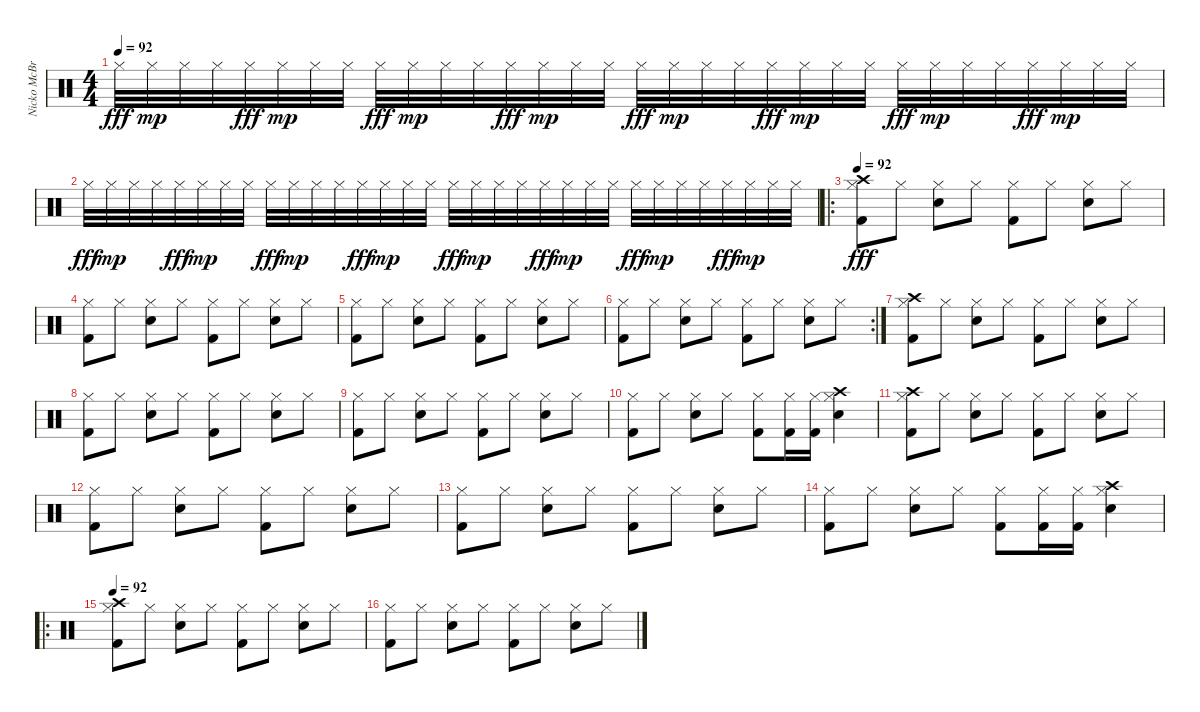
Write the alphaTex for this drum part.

\track ("Nicko McBrain" "Nicko McBr") {instrument percussion}
\staff {score}
\articulation defaults
\ts (4 4)
\tempo 92
\clef neutral
\ks c "Hi-Hat (closed)".32{dy fff} "Hi-Hat (closed)".32{dy mp} "Hi-Hat (closed)".32 "Hi-Hat (closed)".32 "Hi-Hat (closed)".32{dy fff} "Hi-Hat (closed)".32{dy mp} "Hi-Hat (closed)".32 "Hi-Hat (closed)".32 "Hi-Hat (closed)".32{dy fff} "Hi-Hat (closed)".32{dy mp} "Hi-Hat (closed)".32 "Hi-Hat (closed)".32 "Hi-Hat (closed)".32{dy fff} "Hi-Hat (closed)".32{dy mp} "Hi-Hat (closed)".32 "Hi-Hat (closed)".32 "Hi-Hat (closed)".32{dy fff} "Hi-Hat (closed)".32{dy mp} "Hi-Hat (closed)".32 "Hi-Hat (closed)".32 "Hi-Hat (closed)".32{dy fff} "Hi-Hat (closed)".32{dy mp} "Hi-Hat (closed)".32 "Hi-Hat (closed)".32 "Hi-Hat (closed)".32{dy fff} "Hi-Hat (closed)".32{dy mp} "Hi-Hat (closed)".32 "Hi-Hat (closed)".32 "Hi-Hat (closed)".32{dy fff} "Hi-Hat (closed)".32{dy mp} "Hi-Hat (closed)".32 "Hi-Hat (closed)".32
|
"Hi-Hat (closed)".32{dy fff} "Hi-Hat (closed)".32{dy mp} "Hi-Hat (closed)".32 "Hi-Hat (closed)".32 "Hi-Hat (closed)".32{dy fff} "Hi-Hat (closed)".32{dy mp} "Hi-Hat (closed)".32 "Hi-Hat (closed)".32 "Hi-Hat (closed)".32{dy fff} "Hi-Hat (closed)".32{dy mp} "Hi-Hat (closed)".32 "Hi-Hat (closed)".32 "Hi-Hat (closed)".32{dy fff} "Hi-Hat (closed)".32{dy mp} "Hi-Hat (closed)".32 "Hi-Hat (closed)".32 "Hi-Hat (closed)".32{dy fff} "Hi-Hat (closed)".32{dy mp} "Hi-Hat (closed)".32 "Hi-Hat (closed)".32 "Hi-Hat (closed)".32{dy fff} "Hi-Hat (closed)".32{dy mp} "Hi-Hat (closed)".32 "Hi-Hat (closed)".32 "Hi-Hat (closed)".32{dy fff} "Hi-Hat (closed)".32{dy mp} "Hi-Hat (closed)".32 "Hi-Hat (closed)".32 "Hi-Hat (closed)".32{dy fff} "Hi-Hat (closed)".32{dy mp} "Hi-Hat (closed)".32 "Hi-Hat (closed)".32 |
\ro
\tempo 92
("Hi-Hat (closed)" "Kick (hit) 2" "Crash high (hit)").8{dy fff} "Hi-Hat (closed)".8 ("Hi-Hat (closed)" "Snare (hit) 2").8 "Hi-Hat (closed)".8 ("Hi-Hat (closed)" "Kick (hit) 2").8 "Hi-Hat (closed)".8 ("Hi-Hat (closed)" "Snare (hit) 2").8 "Hi-Hat (closed)".8 |
("Hi-Hat (closed)" "Kick (hit) 2").8 "Hi-Hat (closed)".8 ("Hi-Hat (closed)" "Snare (hit) 2").8 "Hi-Hat (closed)".8 ("Hi-Hat (closed)" "Kick (hit) 2").8 "Hi-Hat (closed)".8 ("Hi-Hat (closed)" "Snare (hit) 2").8 "Hi-Hat (closed)".8 |
("Hi-Hat (closed)" "Kick (hit) 2").8 "Hi-Hat (closed)".8 ("Hi-Hat (closed)" "Snare (hit) 2").8 "Hi-Hat (closed)".8 ("Hi-Hat (closed)" "Kick (hit) 2").8 "Hi-Hat (closed)".8 ("Hi-Hat (closed)" "Snare (hit) 2").8 "Hi-Hat (closed)".8 |
\rc 2
("Hi-Hat (closed)" "Kick (hit) 2").8 "Hi-Hat (closed)".8 ("Hi-Hat (closed)" "Snare (hit) 2").8 "Hi-Hat (closed)".8 ("Hi-Hat (closed)" "Kick (hit) 2").8 "Hi-Hat (closed)".8 ("Hi-Hat (closed)" "Snare (hit) 2").8 "Hi-Hat (closed)".8 |
("Hi-Hat (closed)" "Kick (hit) 2" "Crash high (hit)").8 "Hi-Hat (closed)".8 ("Hi-Hat (closed)" "Snare (hit) 2").8 "Hi-Hat (closed)".8 ("Hi-Hat (closed)" "Kick (hit) 2").8 "Hi-Hat (closed)".8 ("Hi-Hat (closed)" "Snare (hit) 2").8 "Hi-Hat (closed)".8 |
("Hi-Hat (closed)" "Kick (hit) 2").8 "Hi-Hat (closed)".8 ("Hi-Hat (closed)" "Snare (hit) 2").8 "Hi-Hat (closed)".8 ("Hi-Hat (closed)" "Kick (hit) 2").8 "Hi-Hat (closed)".8 ("Hi-Hat (closed)" "Snare (hit) 2").8 "Hi-Hat (closed)".8 |
("Hi-Hat (closed)" "Kick (hit) 2").8 "Hi-Hat (closed)".8 ("Hi-Hat (closed)" "Snare (hit) 2").8 "Hi-Hat (closed)".8 ("Hi-Hat (closed)" "Kick (hit) 2").8 "Hi-Hat (closed)".8 ("Hi-Hat (closed)" "Snare (hit) 2").8 "Hi-Hat (closed)".8 |
("Hi-Hat (closed)" "Kick (hit) 2").8 "Hi-Hat (closed)".8 ("Hi-Hat (closed)" "Snare (hit) 2").8 "Hi-Hat (closed)".8 ("Hi-Hat (closed)" "Kick (hit) 2").8 ("Hi-Hat (closed)" "Kick (hit) 2").16 ("Hi-Hat (closed)" "Kick (hit) 2").16 ("Hi-Hat (closed)" "Snare (hit) 2" "Crash high (hit)").4 |
("Hi-Hat (closed)" "Kick (hit) 2" "Crash high (hit)").8 "Hi-Hat (closed)".8 ("Hi-Hat (closed)" "Snare (hit) 2").8 "Hi-Hat (closed)".8 ("Hi-Hat (closed)" "Kick (hit) 2").8 "Hi-Hat (closed)".8 ("Hi-Hat (closed)" "Snare (hit) 2").8 "Hi-Hat (closed)".8 |
("Hi-Hat (closed)" "Kick (hit) 2").8 "Hi-Hat (closed)".8 ("Hi-Hat (closed)" "Snare (hit) 2").8 "Hi-Hat (closed)".8 ("Hi-Hat (closed)" "Kick (hit) 2").8 "Hi-Hat (closed)".8 ("Hi-Hat (closed)" "Snare (hit) 2").8 "Hi-Hat (closed)".8 |
("Hi-Hat (closed)" "Kick (hit) 2").8 "Hi-Hat (closed)".8 ("Hi-Hat (closed)" "Snare (hit) 2").8 "Hi-Hat (closed)".8 ("Hi-Hat (closed)" "Kick (hit) 2").8 "Hi-Hat (closed)".8 ("Hi-Hat (closed)" "Snare (hit) 2").8 "Hi-Hat (closed)".8 |
("Hi-Hat (closed)" "Kick (hit) 2").8 "Hi-Hat (closed)".8 ("Hi-Hat (closed)" "Snare (hit) 2").8 "Hi-Hat (closed)".8 ("Hi-Hat (closed)" "Kick (hit) 2").8 ("Hi-Hat (closed)" "Kick (hit) 2").16 ("Hi-Hat (closed)" "Kick (hit) 2").16 ("Hi-Hat (closed)" "Snare (hit) 2" "Crash high (hit)").4 |
\ro
\tempo 92
("Hi-Hat (closed)" "Kick (hit) 2" "Crash high (hit)").8 "Hi-Hat (closed)".8 ("Hi-Hat (closed)" "Snare (hit) 2").8 "Hi-Hat (closed)".8 ("Hi-Hat (closed)" "Kick (hit) 2").8 "Hi-Hat (closed)".8 ("Hi-Hat (closed)" "Snare (hit) 2").8 "Hi-Hat (closed)".8 |
("Hi-Hat (closed)" "Kick (hit) 2").8 "Hi-Hat (closed)".8 ("Hi-Hat (closed)" "Snare (hit) 2").8 "Hi-Hat (closed)".8 ("Hi-Hat (closed)" "Kick (hit) 2").8 "Hi-Hat (closed)".8 ("Hi-Hat (closed)" "Snare (hit) 2").8 "Hi-Hat (closed)".8
